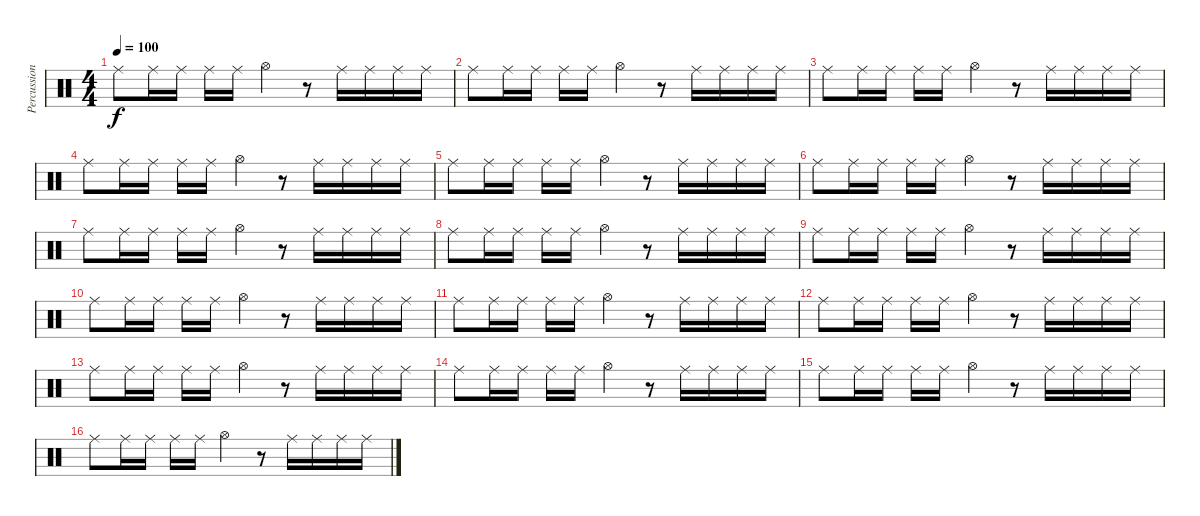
\track ("Percussioni" "Percussion") {instrument percussion}
\staff {score}
\articulation defaults
\ts (4 4)
\tempo 100
\clef neutral
\ks c "Ride (middle)".8{dy f} "Ride (middle)".16 "Ride (middle)".16 "Ride (middle)".16 "Ride (middle)".16 "Hi-Hat (open)".4
r.8 "Ride (middle)".16 "Ride (middle)".16 "Ride (middle)".16 "Ride (middle)".16 |
"Ride (middle)".8 "Ride (middle)".16 "Ride (middle)".16 "Ride (middle)".16 "Ride (middle)".16 "Hi-Hat (open)".4 r.8 "Ride (middle)".16 "Ride (middle)".16 "Ride (middle)".16 "Ride (middle)".16 |
"Ride (middle)".8 "Ride (middle)".16 "Ride (middle)".16 "Ride (middle)".16 "Ride (middle)".16 "Hi-Hat (open)".4 r.8 "Ride (middle)".16 "Ride (middle)".16 "Ride (middle)".16 "Ride (middle)".16 |
"Ride (middle)".8 "Ride (middle)".16 "Ride (middle)".16 "Ride (middle)".16 "Ride (middle)".16 "Hi-Hat (open)".4 r.8 "Ride (middle)".16 "Ride (middle)".16 "Ride (middle)".16 "Ride (middle)".16 |
"Ride (middle)".8 "Ride (middle)".16 "Ride (middle)".16 "Ride (middle)".16 "Ride (middle)".16 "Hi-Hat (open)".4 r.8 "Ride (middle)".16 "Ride (middle)".16 "Ride (middle)".16 "Ride (middle)".16 |
"Ride (middle)".8 "Ride (middle)".16 "Ride (middle)".16 "Ride (middle)".16 "Ride (middle)".16 "Hi-Hat (open)".4 r.8 "Ride (middle)".16 "Ride (middle)".16 "Ride (middle)".16 "Ride (middle)".16 |
"Ride (middle)".8 "Ride (middle)".16 "Ride (middle)".16 "Ride (middle)".16 "Ride (middle)".16 "Hi-Hat (open)".4 r.8 "Ride (middle)".16 "Ride (middle)".16 "Ride (middle)".16 "Ride (middle)".16 |
"Ride (middle)".8 "Ride (middle)".16 "Ride (middle)".16 "Ride (middle)".16 "Ride (middle)".16 "Hi-Hat (open)".4 r.8 "Ride (middle)".16 "Ride (middle)".16 "Ride (middle)".16 "Ride (middle)".16 |
"Ride (middle)".8 "Ride (middle)".16 "Ride (middle)".16 "Ride (middle)".16 "Ride (middle)".16 "Hi-Hat (open)".4 r.8 "Ride (middle)".16 "Ride (middle)".16 "Ride (middle)".16 "Ride (middle)".16 |
"Ride (middle)".8 "Ride (middle)".16 "Ride (middle)".16 "Ride (middle)".16 "Ride (middle)".16 "Hi-Hat (open)".4 r.8 "Ride (middle)".16 "Ride (middle)".16 "Ride (middle)".16 "Ride (middle)".16 |
"Ride (middle)".8 "Ride (middle)".16 "Ride (middle)".16 "Ride (middle)".16 "Ride (middle)".16 "Hi-Hat (open)".4 r.8 "Ride (middle)".16 "Ride (middle)".16 "Ride (middle)".16 "Ride (middle)".16 |
"Ride (middle)".8 "Ride (middle)".16 "Ride (middle)".16 "Ride (middle)".16 "Ride (middle)".16 "Hi-Hat (open)".4 r.8 "Ride (middle)".16 "Ride (middle)".16 "Ride (middle)".16 "Ride (middle)".16 |
"Ride (middle)".8 "Ride (middle)".16 "Ride (middle)".16 "Ride (middle)".16 "Ride (middle)".16 "Hi-Hat (open)".4 r.8 "Ride (middle)".16 "Ride (middle)".16 "Ride (middle)".16 "Ride (middle)".16 |
"Ride (middle)".8 "Ride (middle)".16 "Ride (middle)".16 "Ride (middle)".16 "Ride (middle)".16 "Hi-Hat (open)".4 r.8 "Ride (middle)".16 "Ride (middle)".16 "Ride (middle)".16 "Ride (middle)".16 |
"Ride (middle)".8 "Ride (middle)".16 "Ride (middle)".16 "Ride (middle)".16 "Ride (middle)".16 "Hi-Hat (open)".4 r.8 "Ride (middle)".16 "Ride (middle)".16 "Ride (middle)".16 "Ride (middle)".16 |
"Ride (middle)".8 "Ride (middle)".16 "Ride (middle)".16 "Ride (middle)".16 "Ride (middle)".16 "Hi-Hat (open)".4 r.8 "Ride (middle)".16 "Ride (middle)".16 "Ride (middle)".16 "Ride (middle)".16
